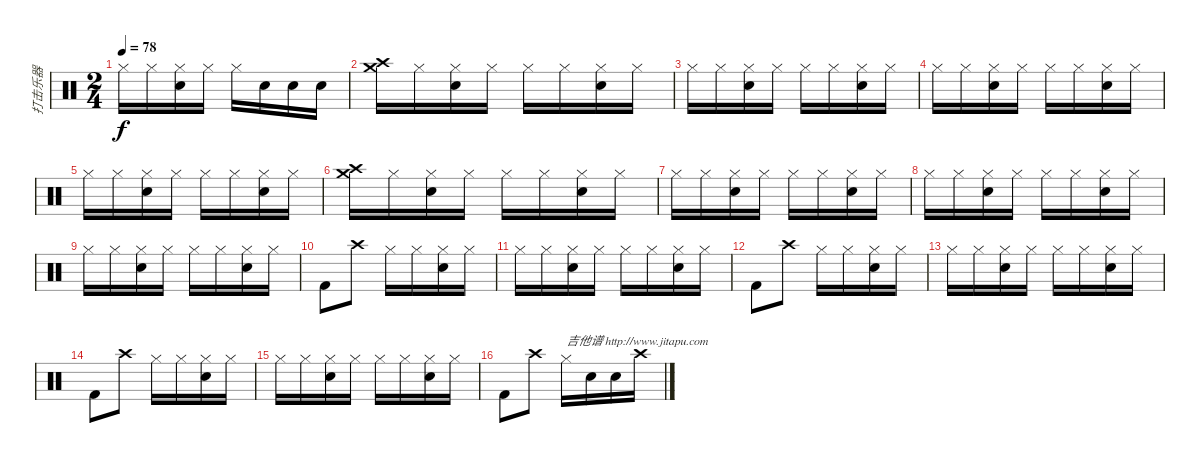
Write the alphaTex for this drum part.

\track ("打击乐器" "打击乐器") {instrument percussion}
\staff {score}
\articulation defaults
\ts (2 4)
\tempo 78
\clef neutral
\ks c "Hi-Hat (closed)".16{dy f} "Hi-Hat (closed)".16
("Hi-Hat (closed)" "Snare (hit) 2").16 "Hi-Hat (closed)".16 "Hi-Hat (closed)".16 "Electric Snare (hit)".16 "Electric Snare (hit)".16 "Electric Snare (hit)".16 |
("Crash high (hit)" "Crash medium (hit)").16 "Hi-Hat (closed)".16 ("Hi-Hat (closed)" "Snare (hit) 2").16 "Hi-Hat (closed)".16 "Hi-Hat (closed)".16 "Hi-Hat (closed)".16 ("Hi-Hat (closed)" "Snare (hit) 2").16 "Hi-Hat (closed)".16 |
"Hi-Hat (closed)".16 "Hi-Hat (closed)".16 ("Hi-Hat (closed)" "Snare (hit) 2").16 "Hi-Hat (closed)".16 "Hi-Hat (closed)".16 "Hi-Hat (closed)".16 ("Hi-Hat (closed)" "Snare (hit) 2").16 "Hi-Hat (closed)".16 |
"Hi-Hat (closed)".16 "Hi-Hat (closed)".16 ("Hi-Hat (closed)" "Snare (hit) 2").16 "Hi-Hat (closed)".16 "Hi-Hat (closed)".16 "Hi-Hat (closed)".16 ("Hi-Hat (closed)" "Snare (hit) 2").16 "Hi-Hat (closed)".16 |
"Hi-Hat (closed)".16 "Hi-Hat (closed)".16 ("Hi-Hat (closed)" "Snare (hit) 2").16 "Hi-Hat (closed)".16 "Hi-Hat (closed)".16 "Hi-Hat (closed)".16 ("Hi-Hat (closed)" "Snare (hit) 2").16 "Hi-Hat (closed)".16 |
("Crash high (hit)" "Crash medium (hit)").16 "Hi-Hat (closed)".16 ("Hi-Hat (closed)" "Snare (hit) 2").16 "Hi-Hat (closed)".16 "Hi-Hat (closed)".16 "Hi-Hat (closed)".16 ("Hi-Hat (closed)" "Snare (hit) 2").16 "Hi-Hat (closed)".16 |
"Hi-Hat (closed)".16 "Hi-Hat (closed)".16 ("Hi-Hat (closed)" "Snare (hit) 2").16 "Hi-Hat (closed)".16 "Hi-Hat (closed)".16 "Hi-Hat (closed)".16 ("Hi-Hat (closed)" "Snare (hit) 2").16 "Hi-Hat (closed)".16 |
"Hi-Hat (closed)".16 "Hi-Hat (closed)".16 ("Hi-Hat (closed)" "Snare (hit) 2").16 "Hi-Hat (closed)".16 "Hi-Hat (closed)".16 "Hi-Hat (closed)".16 ("Hi-Hat (closed)" "Snare (hit) 2").16 "Hi-Hat (closed)".16 |
"Hi-Hat (closed)".16 "Hi-Hat (closed)".16 ("Hi-Hat (closed)" "Snare (hit) 2").16 "Hi-Hat (closed)".16 "Hi-Hat (closed)".16 "Hi-Hat (closed)".16 ("Hi-Hat (closed)" "Snare (hit) 2").16 "Hi-Hat (closed)".16 |
"Kick (hit) 2".8 "Crash high (hit)".8 "Hi-Hat (closed)".16 "Hi-Hat (closed)".16 ("Hi-Hat (closed)" "Snare (hit) 2").16 "Hi-Hat (closed)".16 |
"Hi-Hat (closed)".16 "Hi-Hat (closed)".16 ("Hi-Hat (closed)" "Snare (hit) 2").16 "Hi-Hat (closed)".16 "Hi-Hat (closed)".16 "Hi-Hat (closed)".16 ("Hi-Hat (closed)" "Snare (hit) 2").16 "Hi-Hat (closed)".16 |
"Kick (hit) 2".8 "Crash high (hit)".8 "Hi-Hat (closed)".16 "Hi-Hat (closed)".16 ("Hi-Hat (closed)" "Snare (hit) 2").16 "Hi-Hat (closed)".16 |
"Hi-Hat (closed)".16 "Hi-Hat (closed)".16 ("Hi-Hat (closed)" "Snare (hit) 2").16 "Hi-Hat (closed)".16 "Hi-Hat (closed)".16 "Hi-Hat (closed)".16 ("Hi-Hat (closed)" "Snare (hit) 2").16 "Hi-Hat (closed)".16 |
"Kick (hit) 2".8 "Crash high (hit)".8 "Hi-Hat (closed)".16 "Hi-Hat (closed)".16 ("Hi-Hat (closed)" "Snare (hit) 2").16 "Hi-Hat (closed)".16 |
"Hi-Hat (closed)".16 "Hi-Hat (closed)".16 ("Hi-Hat (closed)" "Snare (hit) 2").16 "Hi-Hat (closed)".16 "Hi-Hat (closed)".16 "Hi-Hat (closed)".16 ("Hi-Hat (closed)" "Snare (hit) 2").16 "Hi-Hat (closed)".16 |
"Kick (hit) 2".8 "Crash high (hit)".8 "Hi-Hat (closed)".16{txt "吉他谱 http://www.jitapu.com"} "Electric Snare (hit)".16 "Electric Snare (hit)".16 "Crash high (hit)".16
